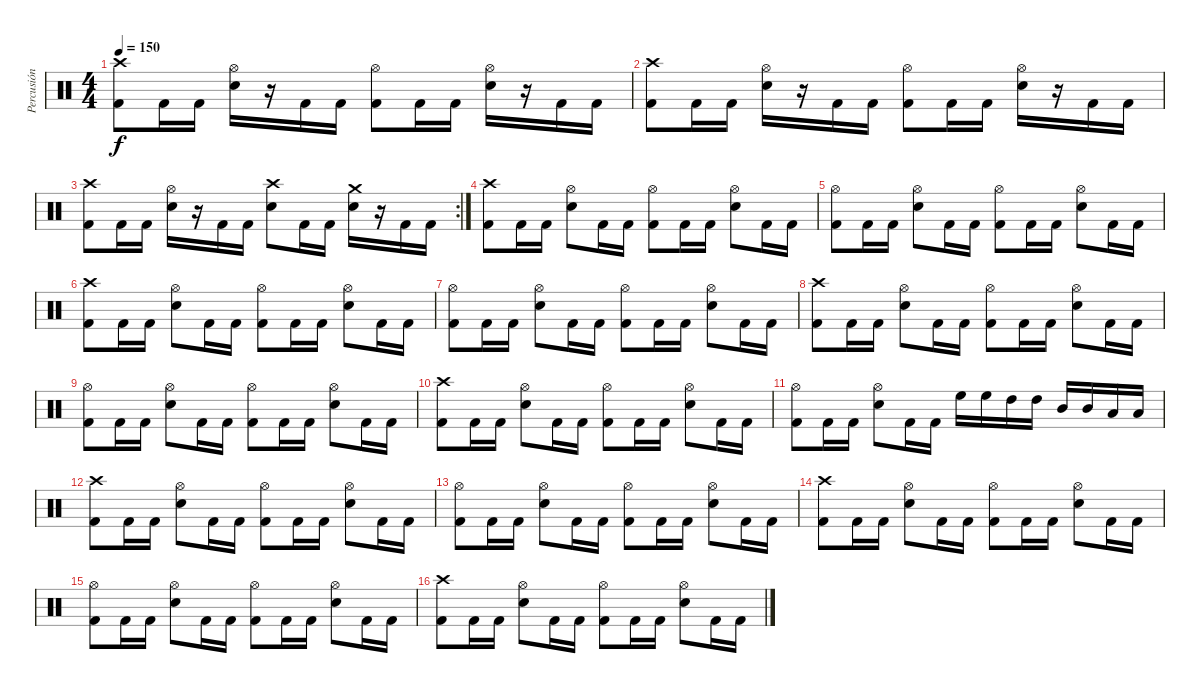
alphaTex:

\track ("Percusión" "Percusión") {instrument percussion}
\staff {score}
\articulation defaults
\ts (4 4)
\tempo 150
\clef neutral
\ks c
("Crash high (hit)" "Kick (hit) 2").8{dy f} "Kick (hit) 2".16 "Kick (hit) 2".16 ("Hi-Hat (open)" "Electric Snare (hit)").16 r.16 "Kick (hit) 2".16 "Kick (hit) 2".16 ("Hi-Hat (open)" "Kick (hit) 2").8 "Kick (hit) 2".16 "Kick (hit) 2".16 ("Hi-Hat (open)" "Electric Snare (hit)").16 r.16 "Kick (hit) 2".16 "Kick (hit) 2".16 |
("Crash high (hit)" "Kick (hit) 2").8 "Kick (hit) 2".16 "Kick (hit) 2".16 ("Hi-Hat (open)" "Electric Snare (hit)").16 r.16 "Kick (hit) 2".16 "Kick (hit) 2".16 ("Hi-Hat (open)" "Kick (hit) 2").8 "Kick (hit) 2".16 "Kick (hit) 2".16 ("Hi-Hat (open)" "Electric Snare (hit)").16 r.16 "Kick (hit) 2".16 "Kick (hit) 2".16 |
\rc 2
("Crash high (hit)" "Kick (hit) 2").8 "Kick (hit) 2".16 "Kick (hit) 2".16 ("Hi-Hat (open)" "Electric Snare (hit)").16 r.16 "Kick (hit) 2".16 "Kick (hit) 2".16 ("Crash high (hit)" "Electric Snare (hit)").8 "Kick (hit) 2".16 "Kick (hit) 2".16 ("Crash medium (hit)" "Electric Snare (hit)").16 r.16 "Kick (hit) 2".16 "Kick (hit) 2".16 |
("Crash high (hit)" "Kick (hit) 2").8 "Kick (hit) 2".16 "Kick (hit) 2".16 ("Hi-Hat (open)" "Electric Snare (hit)").8 "Kick (hit) 2".16 "Kick (hit) 2".16 ("Hi-Hat (open)" "Kick (hit) 2").8 "Kick (hit) 2".16 "Kick (hit) 2".16 ("Hi-Hat (open)" "Electric Snare (hit)").8 "Kick (hit) 2".16 "Kick (hit) 2".16 |
("Hi-Hat (open)" "Kick (hit) 2").8 "Kick (hit) 2".16 "Kick (hit) 2".16 ("Hi-Hat (open)" "Electric Snare (hit)").8 "Kick (hit) 2".16 "Kick (hit) 2".16 ("Hi-Hat (open)" "Kick (hit) 2").8 "Kick (hit) 2".16 "Kick (hit) 2".16 ("Hi-Hat (open)" "Electric Snare (hit)").8 "Kick (hit) 2".16 "Kick (hit) 2".16 |
("Crash high (hit)" "Kick (hit) 2").8 "Kick (hit) 2".16 "Kick (hit) 2".16 ("Hi-Hat (open)" "Electric Snare (hit)").8 "Kick (hit) 2".16 "Kick (hit) 2".16 ("Hi-Hat (open)" "Kick (hit) 2").8 "Kick (hit) 2".16 "Kick (hit) 2".16 ("Hi-Hat (open)" "Electric Snare (hit)").8 "Kick (hit) 2".16 "Kick (hit) 2".16 |
("Hi-Hat (open)" "Kick (hit) 2").8 "Kick (hit) 2".16 "Kick (hit) 2".16 ("Hi-Hat (open)" "Electric Snare (hit)").8 "Kick (hit) 2".16 "Kick (hit) 2".16 ("Hi-Hat (open)" "Kick (hit) 2").8 "Kick (hit) 2".16 "Kick (hit) 2".16 ("Hi-Hat (open)" "Electric Snare (hit)").8 "Kick (hit) 2".16 "Kick (hit) 2".16 |
("Crash high (hit)" "Kick (hit) 2").8 "Kick (hit) 2".16 "Kick (hit) 2".16 ("Hi-Hat (open)" "Electric Snare (hit)").8 "Kick (hit) 2".16 "Kick (hit) 2".16 ("Hi-Hat (open)" "Kick (hit) 2").8 "Kick (hit) 2".16 "Kick (hit) 2".16 ("Hi-Hat (open)" "Electric Snare (hit)").8 "Kick (hit) 2".16 "Kick (hit) 2".16 |
("Hi-Hat (open)" "Kick (hit) 2").8 "Kick (hit) 2".16 "Kick (hit) 2".16 ("Hi-Hat (open)" "Electric Snare (hit)").8 "Kick (hit) 2".16 "Kick (hit) 2".16 ("Hi-Hat (open)" "Kick (hit) 2").8 "Kick (hit) 2".16 "Kick (hit) 2".16 ("Hi-Hat (open)" "Electric Snare (hit)").8 "Kick (hit) 2".16 "Kick (hit) 2".16 |
("Crash high (hit)" "Kick (hit) 2").8 "Kick (hit) 2".16 "Kick (hit) 2".16 ("Hi-Hat (open)" "Electric Snare (hit)").8 "Kick (hit) 2".16 "Kick (hit) 2".16 ("Hi-Hat (open)" "Kick (hit) 2").8 "Kick (hit) 2".16 "Kick (hit) 2".16 ("Hi-Hat (open)" "Electric Snare (hit)").8 "Kick (hit) 2".16 "Kick (hit) 2".16 |
("Hi-Hat (open)" "Kick (hit) 2").8 "Kick (hit) 2".16 "Kick (hit) 2".16 ("Hi-Hat (open)" "Electric Snare (hit)").8 "Kick (hit) 2".16 "Kick (hit) 2".16 "High Floor Tom (hit)".16 "High Floor Tom (hit)".16 "High Tom (hit)".16 "High Tom (hit)".16 "Mid Tom (hit)".16 "Mid Tom (hit)".16 "Low Tom (hit)".16 "Low Tom (hit)".16 |
("Crash high (hit)" "Kick (hit) 2").8 "Kick (hit) 2".16 "Kick (hit) 2".16 ("Hi-Hat (open)" "Electric Snare (hit)").8 "Kick (hit) 2".16 "Kick (hit) 2".16 ("Hi-Hat (open)" "Kick (hit) 2").8 "Kick (hit) 2".16 "Kick (hit) 2".16 ("Hi-Hat (open)" "Electric Snare (hit)").8 "Kick (hit) 2".16 "Kick (hit) 2".16 |
("Hi-Hat (open)" "Kick (hit) 2").8 "Kick (hit) 2".16 "Kick (hit) 2".16 ("Hi-Hat (open)" "Electric Snare (hit)").8 "Kick (hit) 2".16 "Kick (hit) 2".16 ("Hi-Hat (open)" "Kick (hit) 2").8 "Kick (hit) 2".16 "Kick (hit) 2".16 ("Hi-Hat (open)" "Electric Snare (hit)").8 "Kick (hit) 2".16 "Kick (hit) 2".16 |
("Crash high (hit)" "Kick (hit) 2").8 "Kick (hit) 2".16 "Kick (hit) 2".16 ("Hi-Hat (open)" "Electric Snare (hit)").8 "Kick (hit) 2".16 "Kick (hit) 2".16 ("Hi-Hat (open)" "Kick (hit) 2").8 "Kick (hit) 2".16 "Kick (hit) 2".16 ("Hi-Hat (open)" "Electric Snare (hit)").8 "Kick (hit) 2".16 "Kick (hit) 2".16 |
("Hi-Hat (open)" "Kick (hit) 2").8 "Kick (hit) 2".16 "Kick (hit) 2".16 ("Hi-Hat (open)" "Electric Snare (hit)").8 "Kick (hit) 2".16 "Kick (hit) 2".16 ("Hi-Hat (open)" "Kick (hit) 2").8 "Kick (hit) 2".16 "Kick (hit) 2".16 ("Hi-Hat (open)" "Electric Snare (hit)").8 "Kick (hit) 2".16 "Kick (hit) 2".16 |
("Crash high (hit)" "Kick (hit) 2").8 "Kick (hit) 2".16 "Kick (hit) 2".16 ("Hi-Hat (open)" "Electric Snare (hit)").8 "Kick (hit) 2".16 "Kick (hit) 2".16 ("Hi-Hat (open)" "Kick (hit) 2").8 "Kick (hit) 2".16 "Kick (hit) 2".16 ("Hi-Hat (open)" "Electric Snare (hit)").8 "Kick (hit) 2".16 "Kick (hit) 2".16
